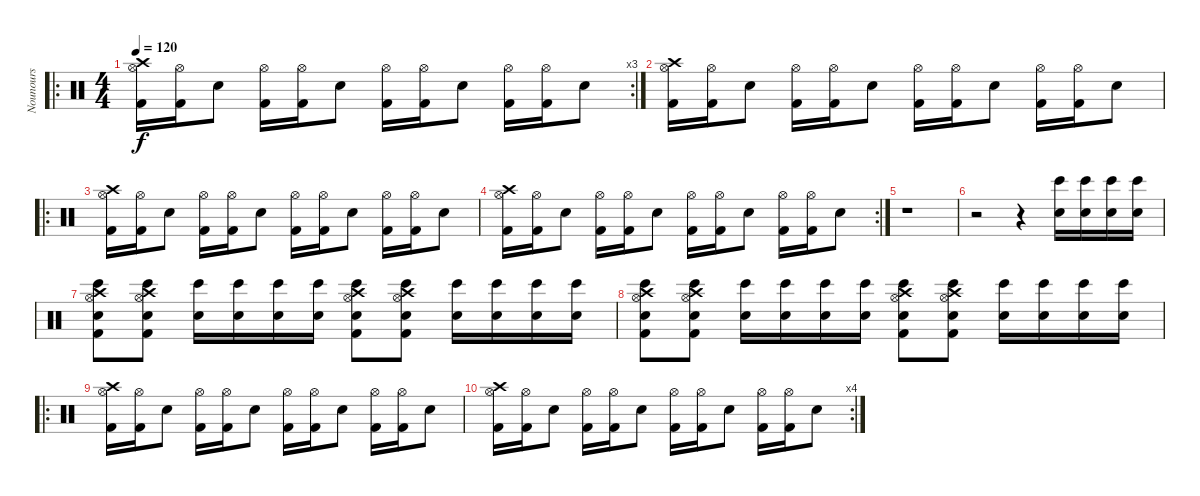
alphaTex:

\track ("Nounours" "Nounours") {instrument percussion}
\staff {score}
\articulation defaults
\ro
\rc 3
\ts (4 4)
\tempo 120
\clef neutral
\ks c
("Crash high (hit)" "Hi-Hat (open)" "Kick (hit) 2").16{dy f} ("Hi-Hat (open)" "Kick (hit) 2").16 "Electric Snare (hit)".8 ("Hi-Hat (open)" "Kick (hit) 2").16 ("Hi-Hat (open)" "Kick (hit) 2").16 "Electric Snare (hit)".8 ("Hi-Hat (open)" "Kick (hit) 2").16 ("Hi-Hat (open)" "Kick (hit) 2").16 "Electric Snare (hit)".8 ("Hi-Hat (open)" "Kick (hit) 2").16 ("Hi-Hat (open)" "Kick (hit) 2").16 "Electric Snare (hit)".8 |
("Crash high (hit)" "Hi-Hat (open)" "Kick (hit) 2").16 ("Hi-Hat (open)" "Kick (hit) 2").16 "Electric Snare (hit)".8 ("Hi-Hat (open)" "Kick (hit) 2").16 ("Hi-Hat (open)" "Kick (hit) 2").16 "Electric Snare (hit)".8 ("Hi-Hat (open)" "Kick (hit) 2").16 ("Hi-Hat (open)" "Kick (hit) 2").16 "Electric Snare (hit)".8 ("Hi-Hat (open)" "Kick (hit) 2").16 ("Hi-Hat (open)" "Kick (hit) 2").16 "Electric Snare (hit)".8 |
\ro
("Crash high (hit)" "Hi-Hat (open)" "Kick (hit) 2").16 ("Hi-Hat (open)" "Kick (hit) 2").16 "Electric Snare (hit)".8 ("Hi-Hat (open)" "Kick (hit) 2").16 ("Hi-Hat (open)" "Kick (hit) 2").16 "Electric Snare (hit)".8 ("Hi-Hat (open)" "Kick (hit) 2").16 ("Hi-Hat (open)" "Kick (hit) 2").16 "Electric Snare (hit)".8 ("Hi-Hat (open)" "Kick (hit) 2").16 ("Hi-Hat (open)" "Kick (hit) 2").16 "Electric Snare (hit)".8 |
\rc 2
("Crash high (hit)" "Hi-Hat (open)" "Kick (hit) 2").16 ("Hi-Hat (open)" "Kick (hit) 2").16 "Electric Snare (hit)".8 ("Hi-Hat (open)" "Kick (hit) 2").16 ("Hi-Hat (open)" "Kick (hit) 2").16 "Electric Snare (hit)".8 ("Hi-Hat (open)" "Kick (hit) 2").16 ("Hi-Hat (open)" "Kick (hit) 2").16 "Electric Snare (hit)".8 ("Hi-Hat (open)" "Kick (hit) 2").16 ("Hi-Hat (open)" "Kick (hit) 2").16 "Electric Snare (hit)".8 |
r.1 |
r.2 r.4 ("Bongo High (hit)" "Electric Snare (hit)").16 ("Bongo High (hit)" "Electric Snare (hit)").16 ("Bongo High (hit)" "Electric Snare (hit)").16 ("Bongo High (hit)" "Electric Snare (hit)").16 |
("Crash high (hit)" "Electric Snare (hit)" "Hi-Hat (open)" "Bongo High (hit)" "Kick (hit) 2").8 ("Crash high (hit)" "Electric Snare (hit)" "Hi-Hat (open)" "Bongo High (hit)" "Kick (hit) 2").8 ("Bongo High (hit)" "Electric Snare (hit)").16 ("Bongo High (hit)" "Electric Snare (hit)").16 ("Bongo High (hit)" "Electric Snare (hit)").16 ("Bongo High (hit)" "Electric Snare (hit)").16 ("Crash high (hit)" "Electric Snare (hit)" "Hi-Hat (open)" "Bongo High (hit)" "Kick (hit) 2").8 ("Crash high (hit)" "Electric Snare (hit)" "Hi-Hat (open)" "Bongo High (hit)" "Kick (hit) 2").8 ("Bongo High (hit)" "Electric Snare (hit)").16 ("Bongo High (hit)" "Electric Snare (hit)").16 ("Bongo High (hit)" "Electric Snare (hit)").16 ("Bongo High (hit)" "Electric Snare (hit)").16 |
("Crash high (hit)" "Electric Snare (hit)" "Hi-Hat (open)" "Bongo High (hit)" "Kick (hit) 2").8 ("Crash high (hit)" "Electric Snare (hit)" "Hi-Hat (open)" "Bongo High (hit)" "Kick (hit) 2").8 ("Bongo High (hit)" "Electric Snare (hit)").16 ("Bongo High (hit)" "Electric Snare (hit)").16 ("Bongo High (hit)" "Electric Snare (hit)").16 ("Bongo High (hit)" "Electric Snare (hit)").16 ("Crash high (hit)" "Electric Snare (hit)" "Hi-Hat (open)" "Bongo High (hit)" "Kick (hit) 2").8 ("Crash high (hit)" "Electric Snare (hit)" "Hi-Hat (open)" "Bongo High (hit)" "Kick (hit) 2").8 ("Bongo High (hit)" "Electric Snare (hit)").16 ("Bongo High (hit)" "Electric Snare (hit)").16 ("Bongo High (hit)" "Electric Snare (hit)").16 ("Bongo High (hit)" "Electric Snare (hit)").16 |
\ro
("Crash high (hit)" "Hi-Hat (open)" "Kick (hit) 2").16 ("Hi-Hat (open)" "Kick (hit) 2").16 "Electric Snare (hit)".8 ("Hi-Hat (open)" "Kick (hit) 2").16 ("Hi-Hat (open)" "Kick (hit) 2").16 "Electric Snare (hit)".8 ("Hi-Hat (open)" "Kick (hit) 2").16 ("Hi-Hat (open)" "Kick (hit) 2").16 "Electric Snare (hit)".8 ("Hi-Hat (open)" "Kick (hit) 2").16 ("Hi-Hat (open)" "Kick (hit) 2").16 "Electric Snare (hit)".8 |
\rc 4
("Crash high (hit)" "Hi-Hat (open)" "Kick (hit) 2").16 ("Hi-Hat (open)" "Kick (hit) 2").16 "Electric Snare (hit)".8 ("Hi-Hat (open)" "Kick (hit) 2").16 ("Hi-Hat (open)" "Kick (hit) 2").16 "Electric Snare (hit)".8 ("Hi-Hat (open)" "Kick (hit) 2").16 ("Hi-Hat (open)" "Kick (hit) 2").16 "Electric Snare (hit)".8 ("Hi-Hat (open)" "Kick (hit) 2").16 ("Hi-Hat (open)" "Kick (hit) 2").16 "Electric Snare (hit)".8
